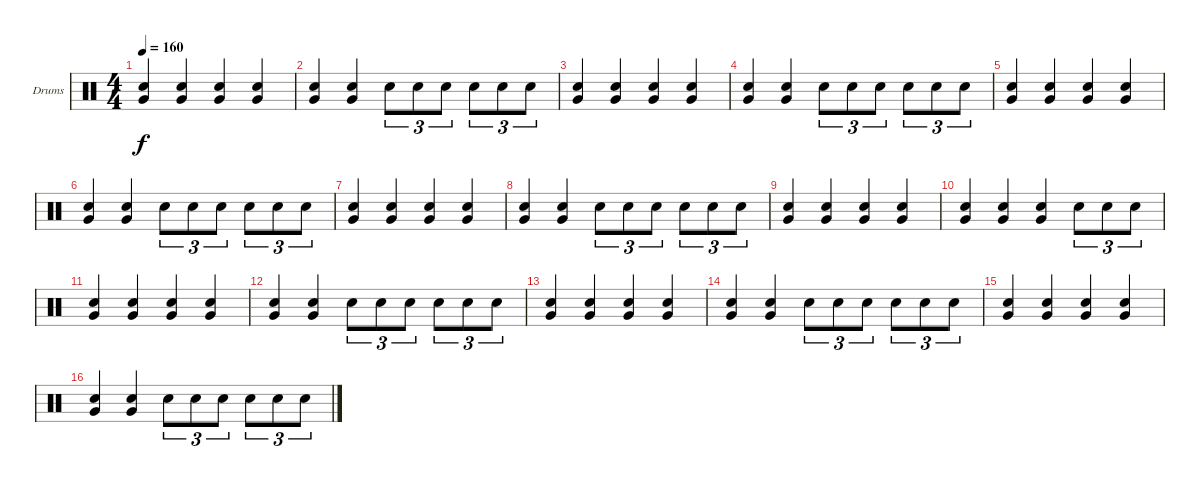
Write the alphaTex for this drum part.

\defaultSystemsLayout 4
\bracketExtendMode groupsimilarinstruments
\firstSystemTrackNameOrientation horizontal
\otherSystemsTrackNameOrientation horizontal
\track ("Drumkit" "Drums") {instrument percussion}
\staff {score}
\articulation defaults
\ts (4 4)
\tempo 160
\clef neutral
\scale
0.474178
\ks c
("Snare (hit) 2" "Very Low Tom (hit)").4{dy f} ("Snare (hit) 2" "Very Low Tom (hit)").4 ("Snare (hit) 2" "Very Low Tom (hit)").4 ("Snare (hit) 2" "Very Low Tom (hit)").4 |
\scale
0.262911 ("Snare (hit) 2" "Very Low Tom (hit)").4 ("Snare (hit) 2" "Very Low Tom (hit)").4 "Snare (hit) 2".8{tu (3 2)} "Snare (hit) 2".8{tu (3 2)} "Snare (hit) 2".8{tu (3 2)} "Snare (hit) 2".8{tu (3 2)} "Snare (hit) 2".8{tu (3 2)} "Snare (hit) 2".8{tu (3 2)} |
\scale
0.262911 ("Snare (hit) 2" "Very Low Tom (hit)").4 ("Snare (hit) 2" "Very Low Tom (hit)").4 ("Snare (hit) 2" "Very Low Tom (hit)").4 ("Snare (hit) 2" "Very Low Tom (hit)").4 |
\scale
0.333333 ("Snare (hit) 2" "Very Low Tom (hit)").4 ("Snare (hit) 2" "Very Low Tom (hit)").4 "Snare (hit) 2".8{tu (3 2)} "Snare (hit) 2".8{tu (3 2)} "Snare (hit) 2".8{tu (3 2)} "Snare (hit) 2".8{tu (3 2)} "Snare (hit) 2".8{tu (3 2)} "Snare (hit) 2".8{tu (3 2)} |
\scale
0.333333 ("Snare (hit) 2" "Very Low Tom (hit)").4 ("Snare (hit) 2" "Very Low Tom (hit)").4 ("Snare (hit) 2" "Very Low Tom (hit)").4 ("Snare (hit) 2" "Very Low Tom (hit)").4 |
\scale
0.333333 ("Snare (hit) 2" "Very Low Tom (hit)").4 ("Snare (hit) 2" "Very Low Tom (hit)").4 "Snare (hit) 2".8{tu (3 2)} "Snare (hit) 2".8{tu (3 2)} "Snare (hit) 2".8{tu (3 2)} "Snare (hit) 2".8{tu (3 2)} "Snare (hit) 2".8{tu (3 2)} "Snare (hit) 2".8{tu (3 2)} |
\scale
0.333333 ("Snare (hit) 2" "Very Low Tom (hit)").4 ("Snare (hit) 2" "Very Low Tom (hit)").4 ("Snare (hit) 2" "Very Low Tom (hit)").4 ("Snare (hit) 2" "Very Low Tom (hit)").4 |
\scale
0.333333 ("Snare (hit) 2" "Very Low Tom (hit)").4 ("Snare (hit) 2" "Very Low Tom (hit)").4 "Snare (hit) 2".8{tu (3 2)} "Snare (hit) 2".8{tu (3 2)} "Snare (hit) 2".8{tu (3 2)} "Snare (hit) 2".8{tu (3 2)} "Snare (hit) 2".8{tu (3 2)} "Snare (hit) 2".8{tu (3 2)} |
\scale
0.333333 ("Snare (hit) 2" "Very Low Tom (hit)").4 ("Snare (hit) 2" "Very Low Tom (hit)").4 ("Snare (hit) 2" "Very Low Tom (hit)").4 ("Snare (hit) 2" "Very Low Tom (hit)").4 |
\scale
0.333333 ("Snare (hit) 2" "Very Low Tom (hit)").4 ("Snare (hit) 2" "Very Low Tom (hit)").4 ("Snare (hit) 2" "Very Low Tom (hit)").4 "Snare (hit) 2".8{tu (3 2)} "Snare (hit) 2".8{tu (3 2)} "Snare (hit) 2".8{tu (3 2)} |
\scale
0.333333 ("Snare (hit) 2" "Very Low Tom (hit)").4 ("Snare (hit) 2" "Very Low Tom (hit)").4 ("Snare (hit) 2" "Very Low Tom (hit)").4 ("Snare (hit) 2" "Very Low Tom (hit)").4 |
\scale
0.333333 ("Snare (hit) 2" "Very Low Tom (hit)").4 ("Snare (hit) 2" "Very Low Tom (hit)").4 "Snare (hit) 2".8{tu (3 2)} "Snare (hit) 2".8{tu (3 2)} "Snare (hit) 2".8{tu (3 2)} "Snare (hit) 2".8{tu (3 2)} "Snare (hit) 2".8{tu (3 2)} "Snare (hit) 2".8{tu (3 2)} |
\scale
0.333333 ("Snare (hit) 2" "Very Low Tom (hit)").4 ("Snare (hit) 2" "Very Low Tom (hit)").4 ("Snare (hit) 2" "Very Low Tom (hit)").4 ("Snare (hit) 2" "Very Low Tom (hit)").4 |
\scale
0.333333 ("Snare (hit) 2" "Very Low Tom (hit)").4 ("Snare (hit) 2" "Very Low Tom (hit)").4 "Snare (hit) 2".8{tu (3 2)} "Snare (hit) 2".8{tu (3 2)} "Snare (hit) 2".8{tu (3 2)} "Snare (hit) 2".8{tu (3 2)} "Snare (hit) 2".8{tu (3 2)} "Snare (hit) 2".8{tu (3 2)} |
\scale
0.333333 ("Snare (hit) 2" "Very Low Tom (hit)").4 ("Snare (hit) 2" "Very Low Tom (hit)").4 ("Snare (hit) 2" "Very Low Tom (hit)").4 ("Snare (hit) 2" "Very Low Tom (hit)").4 |
\scale
0.333333 ("Snare (hit) 2" "Very Low Tom (hit)").4 ("Snare (hit) 2" "Very Low Tom (hit)").4 "Snare (hit) 2".8{tu (3 2)} "Snare (hit) 2".8{tu (3 2)} "Snare (hit) 2".8{tu (3 2)} "Snare (hit) 2".8{tu (3 2)} "Snare (hit) 2".8{tu (3 2)} "Snare (hit) 2".8{tu (3 2)}
